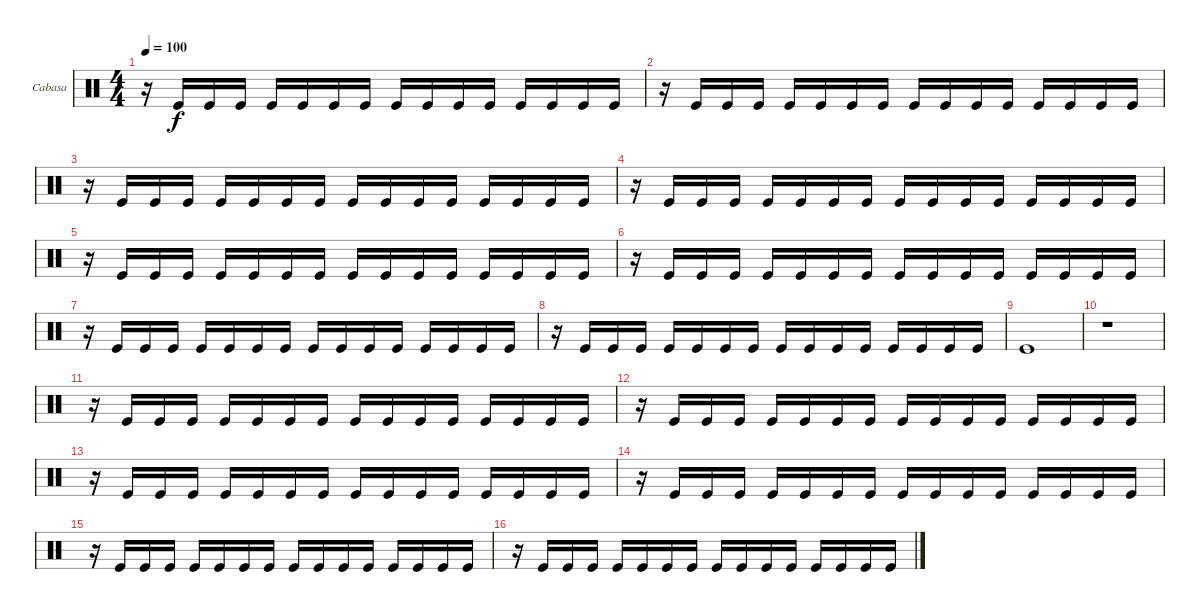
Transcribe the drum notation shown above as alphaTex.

\bracketExtendMode groupsimilarinstruments
\firstSystemTrackNameOrientation horizontal
\otherSystemsTrackNameOrientation horizontal
\track ("Cabasa" "Cabasa") {instrument percussion}
\staff {score}
\articulation defaults
\ts (4 4)
\tempo 100
\clef neutral
\ks c
r.16{dy f} "Kick (hit)".16 "Kick (hit)".16 "Kick (hit)".16 "Kick (hit)".16 "Kick (hit)".16 "Kick (hit)".16 "Kick (hit)".16 "Kick (hit)".16 "Kick (hit)".16 "Kick (hit)".16 "Kick (hit)".16 "Kick (hit)".16 "Kick (hit)".16 "Kick (hit)".16 "Kick (hit)".16 |
r.16 "Kick (hit)".16 "Kick (hit)".16 "Kick (hit)".16 "Kick (hit)".16 "Kick (hit)".16 "Kick (hit)".16 "Kick (hit)".16 "Kick (hit)".16 "Kick (hit)".16 "Kick (hit)".16 "Kick (hit)".16 "Kick (hit)".16 "Kick (hit)".16 "Kick (hit)".16 "Kick (hit)".16 |
r.16 "Kick (hit)".16 "Kick (hit)".16 "Kick (hit)".16 "Kick (hit)".16 "Kick (hit)".16 "Kick (hit)".16 "Kick (hit)".16 "Kick (hit)".16 "Kick (hit)".16 "Kick (hit)".16 "Kick (hit)".16 "Kick (hit)".16 "Kick (hit)".16 "Kick (hit)".16 "Kick (hit)".16 |
r.16 "Kick (hit)".16 "Kick (hit)".16 "Kick (hit)".16 "Kick (hit)".16 "Kick (hit)".16 "Kick (hit)".16 "Kick (hit)".16 "Kick (hit)".16 "Kick (hit)".16 "Kick (hit)".16 "Kick (hit)".16 "Kick (hit)".16 "Kick (hit)".16 "Kick (hit)".16 "Kick (hit)".16 |
r.16 "Kick (hit)".16 "Kick (hit)".16 "Kick (hit)".16 "Kick (hit)".16 "Kick (hit)".16 "Kick (hit)".16 "Kick (hit)".16 "Kick (hit)".16 "Kick (hit)".16 "Kick (hit)".16 "Kick (hit)".16 "Kick (hit)".16 "Kick (hit)".16 "Kick (hit)".16 "Kick (hit)".16 |
r.16 "Kick (hit)".16 "Kick (hit)".16 "Kick (hit)".16 "Kick (hit)".16 "Kick (hit)".16 "Kick (hit)".16 "Kick (hit)".16 "Kick (hit)".16 "Kick (hit)".16 "Kick (hit)".16 "Kick (hit)".16 "Kick (hit)".16 "Kick (hit)".16 "Kick (hit)".16 "Kick (hit)".16 |
r.16 "Kick (hit)".16 "Kick (hit)".16 "Kick (hit)".16 "Kick (hit)".16 "Kick (hit)".16 "Kick (hit)".16 "Kick (hit)".16 "Kick (hit)".16 "Kick (hit)".16 "Kick (hit)".16 "Kick (hit)".16 "Kick (hit)".16 "Kick (hit)".16 "Kick (hit)".16 "Kick (hit)".16 |
r.16 "Kick (hit)".16 "Kick (hit)".16 "Kick (hit)".16 "Kick (hit)".16 "Kick (hit)".16 "Kick (hit)".16 "Kick (hit)".16 "Kick (hit)".16 "Kick (hit)".16 "Kick (hit)".16 "Kick (hit)".16 "Kick (hit)".16 "Kick (hit)".16 "Kick (hit)".16 "Kick (hit)".16 |
"Kick (hit)".1 |
r.1 |
r.16 "Kick (hit)".16 "Kick (hit)".16 "Kick (hit)".16 "Kick (hit)".16 "Kick (hit)".16 "Kick (hit)".16 "Kick (hit)".16 "Kick (hit)".16 "Kick (hit)".16 "Kick (hit)".16 "Kick (hit)".16 "Kick (hit)".16 "Kick (hit)".16 "Kick (hit)".16 "Kick (hit)".16 |
r.16 "Kick (hit)".16 "Kick (hit)".16 "Kick (hit)".16 "Kick (hit)".16 "Kick (hit)".16 "Kick (hit)".16 "Kick (hit)".16 "Kick (hit)".16 "Kick (hit)".16 "Kick (hit)".16 "Kick (hit)".16 "Kick (hit)".16 "Kick (hit)".16 "Kick (hit)".16 "Kick (hit)".16 |
r.16 "Kick (hit)".16 "Kick (hit)".16 "Kick (hit)".16 "Kick (hit)".16 "Kick (hit)".16 "Kick (hit)".16 "Kick (hit)".16 "Kick (hit)".16 "Kick (hit)".16 "Kick (hit)".16 "Kick (hit)".16 "Kick (hit)".16 "Kick (hit)".16 "Kick (hit)".16 "Kick (hit)".16 |
r.16 "Kick (hit)".16 "Kick (hit)".16 "Kick (hit)".16 "Kick (hit)".16 "Kick (hit)".16 "Kick (hit)".16 "Kick (hit)".16 "Kick (hit)".16 "Kick (hit)".16 "Kick (hit)".16 "Kick (hit)".16 "Kick (hit)".16 "Kick (hit)".16 "Kick (hit)".16 "Kick (hit)".16 |
r.16 "Kick (hit)".16 "Kick (hit)".16 "Kick (hit)".16 "Kick (hit)".16 "Kick (hit)".16 "Kick (hit)".16 "Kick (hit)".16 "Kick (hit)".16 "Kick (hit)".16 "Kick (hit)".16 "Kick (hit)".16 "Kick (hit)".16 "Kick (hit)".16 "Kick (hit)".16 "Kick (hit)".16 |
r.16 "Kick (hit)".16 "Kick (hit)".16 "Kick (hit)".16 "Kick (hit)".16 "Kick (hit)".16 "Kick (hit)".16 "Kick (hit)".16 "Kick (hit)".16 "Kick (hit)".16 "Kick (hit)".16 "Kick (hit)".16 "Kick (hit)".16 "Kick (hit)".16 "Kick (hit)".16 "Kick (hit)".16
